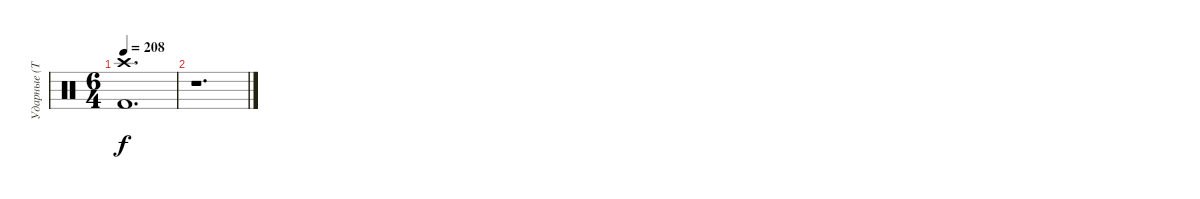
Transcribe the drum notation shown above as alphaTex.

\track ("Ударные (Тьодальв)" "Ударные (Т") {instrument percussion}
\staff {score}
\articulation defaults
\ts (6 4)
\tempo 208
\clef neutral
\ks c
("Kick (hit) 2" "Crash high (hit)").1{d dy f} |
r.1{d}
